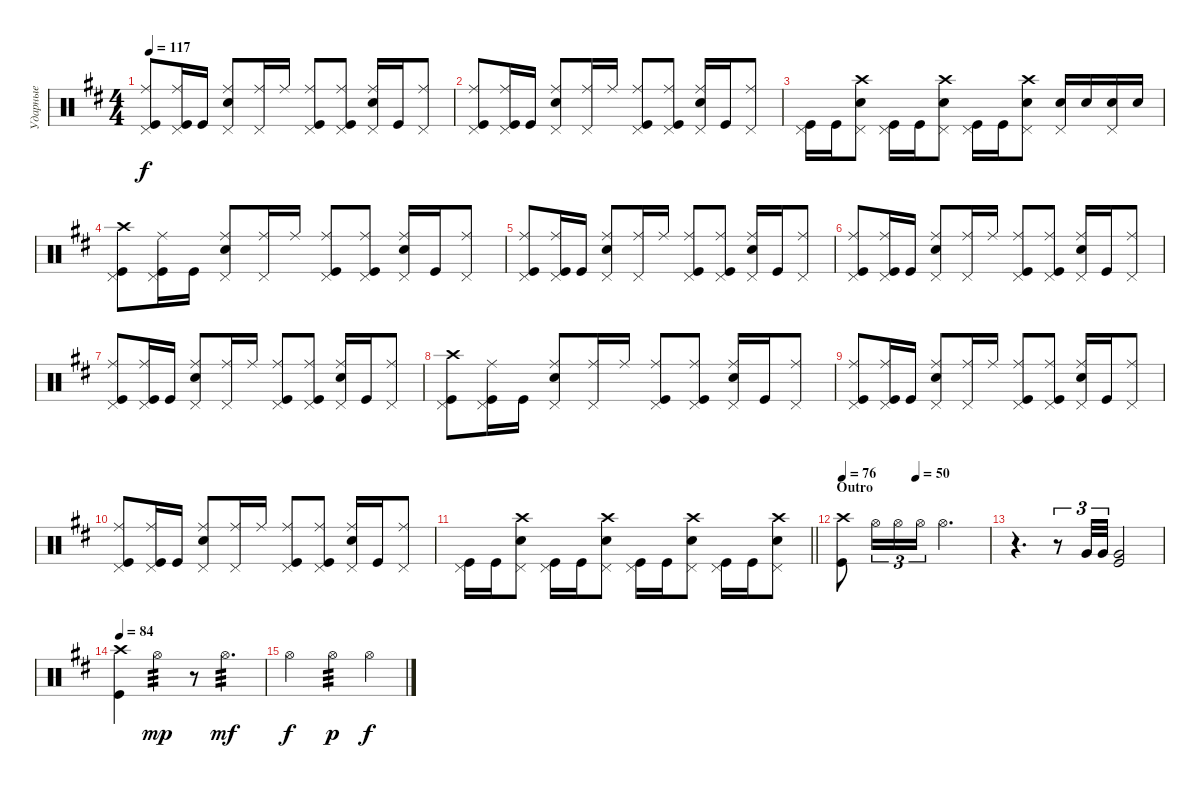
\track ("Ударные" "Ударные") {instrument percussion}
\staff {score}
\articulation defaults
\ts (4 4)
\tempo 117
\clef neutral
\ks d
("Kick (hit)" "Ride (middle)" "Pedal Hi-Hat (hit)").8{dy f} ("Kick (hit)" "Ride (middle)" "Pedal Hi-Hat (hit)").16 "Kick (hit)".16 ("Snare (hit) 2" "Ride (middle)" "Pedal Hi-Hat (hit)").8 ("Ride (middle)" "Pedal Hi-Hat (hit)").16 "Ride (middle)".16 ("Kick (hit)" "Ride (middle)" "Pedal Hi-Hat (hit)").8 ("Ride (middle)" "Kick (hit)" "Pedal Hi-Hat (hit)").8 ("Snare (hit) 2" "Ride (middle)" "Pedal Hi-Hat (hit)").16 "Kick (hit)".16 ("Ride (middle)" "Pedal Hi-Hat (hit)").8 |
("Kick (hit)" "Ride (middle)" "Pedal Hi-Hat (hit)").8 ("Kick (hit)" "Ride (middle)" "Pedal Hi-Hat (hit)").16 "Kick (hit)".16 ("Snare (hit) 2" "Ride (middle)" "Pedal Hi-Hat (hit)").8 ("Ride (middle)" "Pedal Hi-Hat (hit)").16 "Ride (middle)".16 ("Kick (hit)" "Ride (middle)" "Pedal Hi-Hat (hit)").8 ("Ride (middle)" "Kick (hit)" "Pedal Hi-Hat (hit)").8 ("Snare (hit) 2" "Ride (middle)" "Pedal Hi-Hat (hit)").16 "Kick (hit)".16 ("Ride (middle)" "Pedal Hi-Hat (hit)").8 |
("Pedal Hi-Hat (hit)" "Kick (hit)").16 "Kick (hit)".16 ("Snare (hit) 2" "Crash high (hit)" "Pedal Hi-Hat (hit)").8 ("Kick (hit)" "Pedal Hi-Hat (hit)").16 "Kick (hit)".16 ("Snare (hit) 2" "Crash high (hit)" "Pedal Hi-Hat (hit)").8 ("Kick (hit)" "Pedal Hi-Hat (hit)").16 "Kick (hit)".16 ("Snare (hit) 2" "Crash high (hit)" "Pedal Hi-Hat (hit)").8 ("Snare (hit) 2" "Pedal Hi-Hat (hit)").16 "Snare (hit) 2".16 ("Snare (hit) 2" "Pedal Hi-Hat (hit)").16 "Snare (hit) 2".16 |
("Kick (hit)" "Crash high (hit)" "Pedal Hi-Hat (hit)").8 ("Kick (hit)" "Ride (middle)" "Pedal Hi-Hat (hit)").16 "Kick (hit)".16 ("Snare (hit) 2" "Ride (middle)" "Pedal Hi-Hat (hit)").8 ("Ride (middle)" "Pedal Hi-Hat (hit)").16 "Ride (middle)".16 ("Kick (hit)" "Ride (middle)" "Pedal Hi-Hat (hit)").8 ("Ride (middle)" "Kick (hit)" "Pedal Hi-Hat (hit)").8 ("Snare (hit) 2" "Ride (middle)" "Pedal Hi-Hat (hit)").16 "Kick (hit)".16 ("Ride (middle)" "Pedal Hi-Hat (hit)").8 |
("Kick (hit)" "Ride (middle)" "Pedal Hi-Hat (hit)").8 ("Kick (hit)" "Ride (middle)" "Pedal Hi-Hat (hit)").16 "Kick (hit)".16 ("Snare (hit) 2" "Ride (middle)" "Pedal Hi-Hat (hit)").8 ("Ride (middle)" "Pedal Hi-Hat (hit)").16 "Ride (middle)".16 ("Kick (hit)" "Ride (middle)" "Pedal Hi-Hat (hit)").8 ("Ride (middle)" "Kick (hit)" "Pedal Hi-Hat (hit)").8 ("Snare (hit) 2" "Ride (middle)" "Pedal Hi-Hat (hit)").16 "Kick (hit)".16 ("Ride (middle)" "Pedal Hi-Hat (hit)").8 |
("Kick (hit)" "Ride (middle)" "Pedal Hi-Hat (hit)").8 ("Kick (hit)" "Ride (middle)" "Pedal Hi-Hat (hit)").16 "Kick (hit)".16 ("Snare (hit) 2" "Ride (middle)" "Pedal Hi-Hat (hit)").8 ("Ride (middle)" "Pedal Hi-Hat (hit)").16 "Ride (middle)".16 ("Kick (hit)" "Ride (middle)" "Pedal Hi-Hat (hit)").8 ("Ride (middle)" "Kick (hit)" "Pedal Hi-Hat (hit)").8 ("Snare (hit) 2" "Ride (middle)" "Pedal Hi-Hat (hit)").16 "Kick (hit)".16 ("Ride (middle)" "Pedal Hi-Hat (hit)").8 |
("Kick (hit)" "Ride (middle)" "Pedal Hi-Hat (hit)").8 ("Kick (hit)" "Ride (middle)" "Pedal Hi-Hat (hit)").16 "Kick (hit)".16 ("Snare (hit) 2" "Ride (middle)" "Pedal Hi-Hat (hit)").8 ("Ride (middle)" "Pedal Hi-Hat (hit)").16 "Ride (middle)".16 ("Kick (hit)" "Ride (middle)" "Pedal Hi-Hat (hit)").8 ("Ride (middle)" "Kick (hit)" "Pedal Hi-Hat (hit)").8 ("Snare (hit) 2" "Ride (middle)" "Pedal Hi-Hat (hit)").16 "Kick (hit)".16 ("Ride (middle)" "Pedal Hi-Hat (hit)").8 |
("Kick (hit)" "Crash high (hit)" "Pedal Hi-Hat (hit)").8 ("Kick (hit)" "Ride (middle)" "Pedal Hi-Hat (hit)").16 "Kick (hit)".16 ("Snare (hit) 2" "Ride (middle)" "Pedal Hi-Hat (hit)").8 ("Ride (middle)" "Pedal Hi-Hat (hit)").16 "Ride (middle)".16 ("Kick (hit)" "Ride (middle)" "Pedal Hi-Hat (hit)").8 ("Ride (middle)" "Kick (hit)" "Pedal Hi-Hat (hit)").8 ("Snare (hit) 2" "Ride (middle)" "Pedal Hi-Hat (hit)").16 "Kick (hit)".16 ("Ride (middle)" "Pedal Hi-Hat (hit)").8 |
("Kick (hit)" "Ride (middle)" "Pedal Hi-Hat (hit)").8 ("Kick (hit)" "Ride (middle)" "Pedal Hi-Hat (hit)").16 "Kick (hit)".16 ("Snare (hit) 2" "Ride (middle)" "Pedal Hi-Hat (hit)").8 ("Ride (middle)" "Pedal Hi-Hat (hit)").16 "Ride (middle)".16 ("Kick (hit)" "Ride (middle)" "Pedal Hi-Hat (hit)").8 ("Ride (middle)" "Kick (hit)" "Pedal Hi-Hat (hit)").8 ("Snare (hit) 2" "Ride (middle)" "Pedal Hi-Hat (hit)").16 "Kick (hit)".16 ("Ride (middle)" "Pedal Hi-Hat (hit)").8 |
("Kick (hit)" "Ride (middle)" "Pedal Hi-Hat (hit)").8 ("Kick (hit)" "Ride (middle)" "Pedal Hi-Hat (hit)").16 "Kick (hit)".16 ("Snare (hit) 2" "Ride (middle)" "Pedal Hi-Hat (hit)").8 ("Ride (middle)" "Pedal Hi-Hat (hit)").16 "Ride (middle)".16 ("Kick (hit)" "Ride (middle)" "Pedal Hi-Hat (hit)").8 ("Ride (middle)" "Kick (hit)" "Pedal Hi-Hat (hit)").8 ("Snare (hit) 2" "Ride (middle)" "Pedal Hi-Hat (hit)").16 "Kick (hit)".16 ("Ride (middle)" "Pedal Hi-Hat (hit)").8 |
\barLineRight lightlight
("Pedal Hi-Hat (hit)" "Kick (hit)").16 "Kick (hit)".16 ("Snare (hit) 2" "Crash high (hit)" "Pedal Hi-Hat (hit)").8 ("Kick (hit)" "Pedal Hi-Hat (hit)").16 "Kick (hit)".16 ("Snare (hit) 2" "Crash high (hit)" "Pedal Hi-Hat (hit)").8 ("Kick (hit)" "Pedal Hi-Hat (hit)").16 "Kick (hit)".16 ("Snare (hit) 2" "Crash high (hit)" "Pedal Hi-Hat (hit)").8 ("Kick (hit)" "Pedal Hi-Hat (hit)").16 "Kick (hit)".16 ("Snare (hit) 2" "Crash high (hit)" "Pedal Hi-Hat (hit)").8 |
\section ("" "Outro")
\tempo 76
\tempo (50 0.5)
\ks bminor
("Kick (hit)" "Crash high (hit)").8 "Hi-Hat (open)".16{tu (3 2)} "Hi-Hat (open)".16{tu (3 2)} "Hi-Hat (open)".16{tu (3 2)} "Hi-Hat (open)".2{d} |
r.4{d} r.8{tu (3 2)} "Very Low Tom (hit)".32{tu (3 2)} "Very Low Tom (hit)".32{tu (3 2)} ("Very Low Tom (hit)" "Kick (hit)").2 |
\tempo 84
("Kick (hit)" "Crash high (hit)").4 "Hi-Hat (open)".4{tp 3 dy mp} r.8 "Hi-Hat (open)".4{d tp 3 dy mf} |
"Hi-Hat (open)".2{dy f} "Hi-Hat (open)".4{tp 3 dy p} "Hi-Hat (open)".4{dy f}
